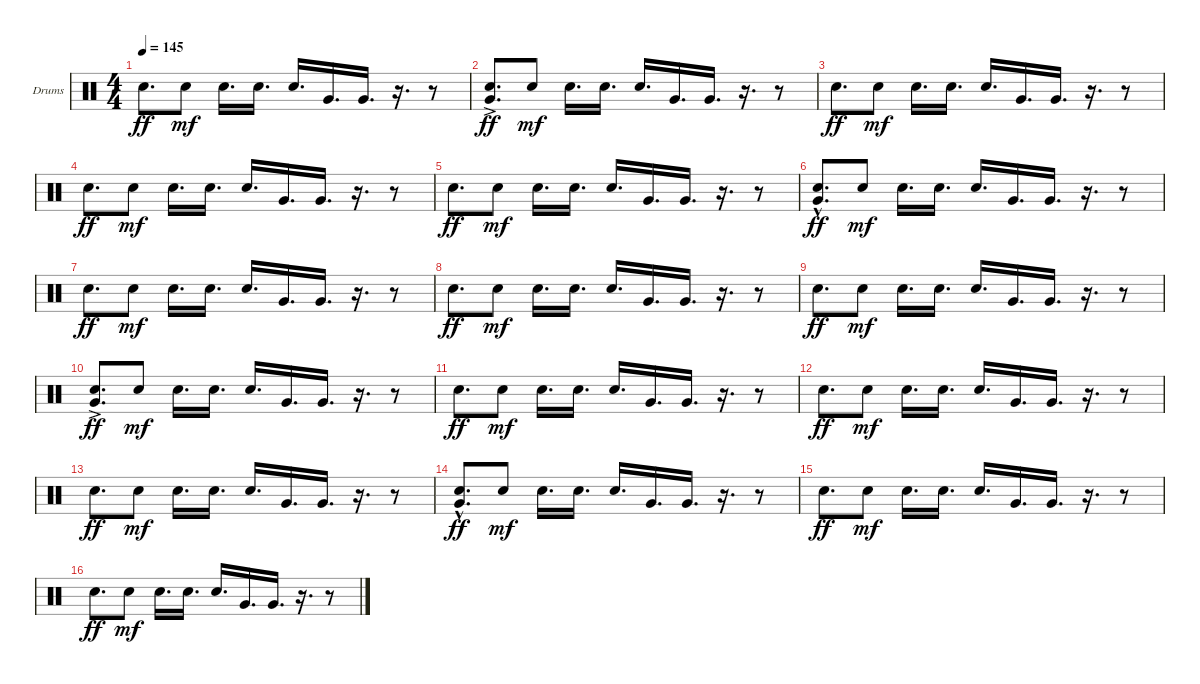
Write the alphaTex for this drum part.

\defaultSystemsLayout 4
\bracketExtendMode groupsimilarinstruments
\firstSystemTrackNameOrientation horizontal
\otherSystemsTrackNameOrientation horizontal
\track ("Drumkit" "Drums") {instrument percussion}
\staff {score}
\articulation defaults
\ts (4 4)
\tempo 145
\clef neutral
\ks c "Snare (hit) 2".8{d dy ff} "Snare (hit) 2".8{dy mf} "Snare (hit) 2".16{d} "Snare (hit) 2".16{d} "Snare (hit) 2".16{d} "Very Low Tom (hit)".16{d} "Very Low Tom (hit)".16{d}
r.16{d} r.8 |
("Snare (hit) 2" "Very Low Tom (hit)"{ac}).8{d dy ff} "Snare (hit) 2".8{dy mf} "Snare (hit) 2".16{d} "Snare (hit) 2".16{d} "Snare (hit) 2".16{d} "Very Low Tom (hit)".16{d} "Very Low Tom (hit)".16{d} r.16{d} r.8 |
"Snare (hit) 2".8{d dy ff} "Snare (hit) 2".8{dy mf} "Snare (hit) 2".16{d} "Snare (hit) 2".16{d} "Snare (hit) 2".16{d} "Very Low Tom (hit)".16{d} "Very Low Tom (hit)".16{d} r.16{d} r.8 |
"Snare (hit) 2".8{d dy ff} "Snare (hit) 2".8{dy mf} "Snare (hit) 2".16{d} "Snare (hit) 2".16{d} "Snare (hit) 2".16{d} "Very Low Tom (hit)".16{d} "Very Low Tom (hit)".16{d} r.16{d} r.8 |
"Snare (hit) 2".8{d dy ff} "Snare (hit) 2".8{dy mf} "Snare (hit) 2".16{d} "Snare (hit) 2".16{d} "Snare (hit) 2".16{d} "Very Low Tom (hit)".16{d} "Very Low Tom (hit)".16{d} r.16{d} r.8 |
("Snare (hit) 2" "Very Low Tom (hit)"{hac}).8{d dy ff} "Snare (hit) 2".8{dy mf} "Snare (hit) 2".16{d} "Snare (hit) 2".16{d} "Snare (hit) 2".16{d} "Very Low Tom (hit)".16{d} "Very Low Tom (hit)".16{d} r.16{d} r.8 |
"Snare (hit) 2".8{d dy ff} "Snare (hit) 2".8{dy mf} "Snare (hit) 2".16{d} "Snare (hit) 2".16{d} "Snare (hit) 2".16{d} "Very Low Tom (hit)".16{d} "Very Low Tom (hit)".16{d} r.16{d} r.8 |
"Snare (hit) 2".8{d dy ff} "Snare (hit) 2".8{dy mf} "Snare (hit) 2".16{d} "Snare (hit) 2".16{d} "Snare (hit) 2".16{d} "Very Low Tom (hit)".16{d} "Very Low Tom (hit)".16{d} r.16{d} r.8 |
"Snare (hit) 2".8{d dy ff} "Snare (hit) 2".8{dy mf} "Snare (hit) 2".16{d} "Snare (hit) 2".16{d} "Snare (hit) 2".16{d} "Very Low Tom (hit)".16{d} "Very Low Tom (hit)".16{d} r.16{d} r.8 |
("Snare (hit) 2" "Very Low Tom (hit)"{ac}).8{d dy ff} "Snare (hit) 2".8{dy mf} "Snare (hit) 2".16{d} "Snare (hit) 2".16{d} "Snare (hit) 2".16{d} "Very Low Tom (hit)".16{d} "Very Low Tom (hit)".16{d} r.16{d} r.8 |
"Snare (hit) 2".8{d dy ff} "Snare (hit) 2".8{dy mf} "Snare (hit) 2".16{d} "Snare (hit) 2".16{d} "Snare (hit) 2".16{d} "Very Low Tom (hit)".16{d} "Very Low Tom (hit)".16{d} r.16{d} r.8 |
"Snare (hit) 2".8{d dy ff} "Snare (hit) 2".8{dy mf} "Snare (hit) 2".16{d} "Snare (hit) 2".16{d} "Snare (hit) 2".16{d} "Very Low Tom (hit)".16{d} "Very Low Tom (hit)".16{d} r.16{d} r.8 |
"Snare (hit) 2".8{d dy ff} "Snare (hit) 2".8{dy mf} "Snare (hit) 2".16{d} "Snare (hit) 2".16{d} "Snare (hit) 2".16{d} "Very Low Tom (hit)".16{d} "Very Low Tom (hit)".16{d} r.16{d} r.8 |
("Snare (hit) 2" "Very Low Tom (hit)"{hac}).8{d dy ff} "Snare (hit) 2".8{dy mf} "Snare (hit) 2".16{d} "Snare (hit) 2".16{d} "Snare (hit) 2".16{d} "Very Low Tom (hit)".16{d} "Very Low Tom (hit)".16{d} r.16{d} r.8 |
"Snare (hit) 2".8{d dy ff} "Snare (hit) 2".8{dy mf} "Snare (hit) 2".16{d} "Snare (hit) 2".16{d} "Snare (hit) 2".16{d} "Very Low Tom (hit)".16{d} "Very Low Tom (hit)".16{d} r.16{d} r.8 |
"Snare (hit) 2".8{d dy ff} "Snare (hit) 2".8{dy mf} "Snare (hit) 2".16{d} "Snare (hit) 2".16{d} "Snare (hit) 2".16{d} "Very Low Tom (hit)".16{d} "Very Low Tom (hit)".16{d} r.16{d} r.8
